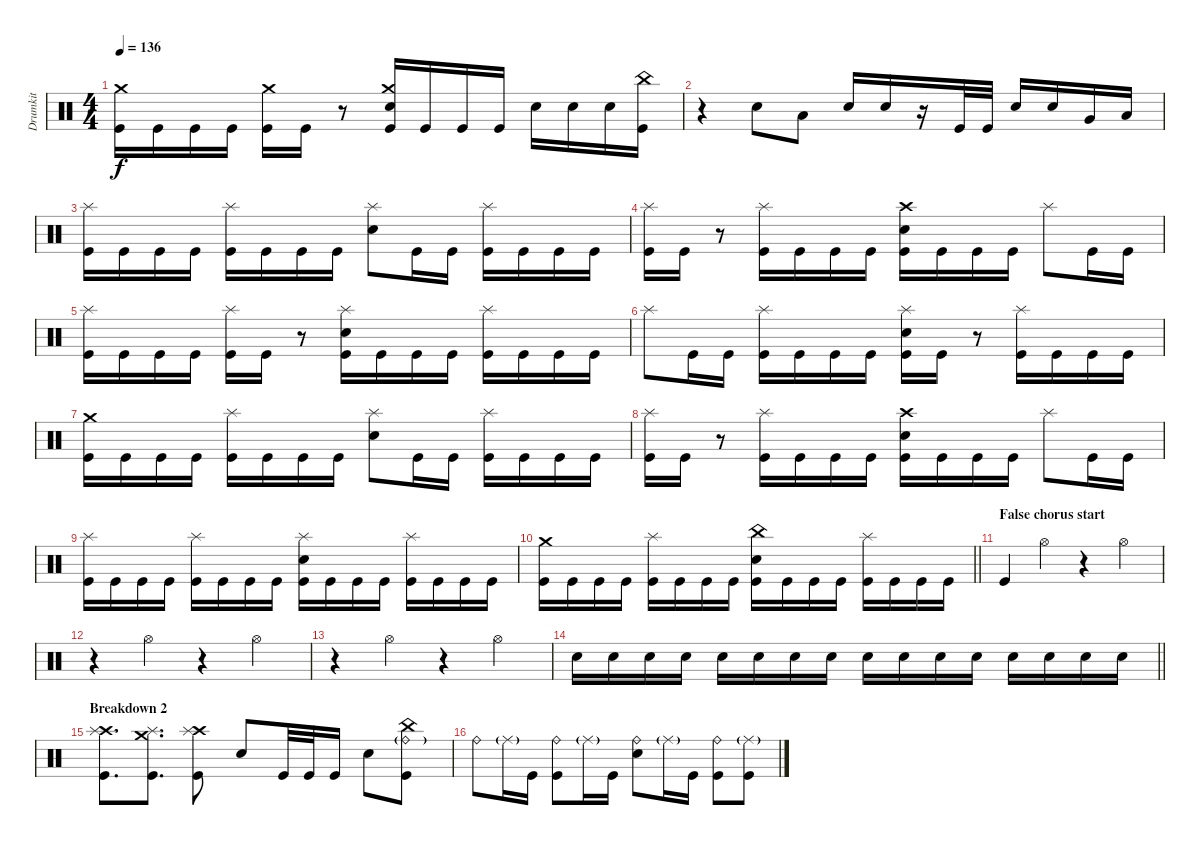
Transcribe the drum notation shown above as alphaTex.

\track ("Drumkit" "Drumkit") {instrument percussion}
\staff {score}
\articulation defaults
\ts (4 4)
\tempo 136
\clef neutral
\ks c
("Kick (hit)" "Crash medium (hit)").16{dy f} "Kick (hit)".16 "Kick (hit)".16 "Kick (hit)".16 ("Kick (hit)" "Crash medium (hit)").16 "Kick (hit)".16 r.8 ("Kick (hit)" "Snare (hit) 2" "Crash medium (hit)").16 "Kick (hit)".16 "Kick (hit)".16 "Kick (hit)".16 "Snare (hit) 2".16 "Snare (hit) 2".16 "Snare (hit) 2".16 ("Kick (hit)" "China (hit)").16 |
r.4 "Snare (hit) 2".8 "Low Tom (hit)".8 "Snare (hit) 2".16 "Snare (hit) 2".16 r.16 "Kick (hit)".32 "Kick (hit)".32 "Snare (hit) 2".16 "Snare (hit) 2".16 "Very Low Tom (hit)".16 "Low Floor Tom (hit)".16 |
("Kick (hit)" "Splash (hit)").16 "Kick (hit)".16 "Kick (hit)".16 "Kick (hit)".16 ("Kick (hit)" "Splash (hit)").16 "Kick (hit)".16 "Kick (hit)".16 "Kick (hit)".16 ("Snare (hit) 2" "Splash (hit)").8 "Kick (hit)".16 "Kick (hit)".16 ("Kick (hit)" "Splash (hit)").16 "Kick (hit)".16 "Kick (hit)".16 "Kick (hit)".16 |
("Splash (hit)" "Kick (hit)").16 "Kick (hit)".16 r.8 ("Splash (hit)" "Kick (hit)").16 "Kick (hit)".16 "Kick (hit)".16 "Kick (hit)".16 ("Kick (hit)" "Snare (hit) 2" "Crash high (hit)").16 "Kick (hit)".16 "Kick (hit)".16 "Kick (hit)".16 "Splash (hit)".8 "Kick (hit)".16 "Kick (hit)".16 |
("Kick (hit)" "Splash (hit)").16 "Kick (hit)".16 "Kick (hit)".16 "Kick (hit)".16 ("Kick (hit)" "Splash (hit)").16 "Kick (hit)".16 r.8 ("Kick (hit)" "Splash (hit)" "Snare (hit) 2").16 "Kick (hit)".16 "Kick (hit)".16 "Kick (hit)".16 ("Kick (hit)" "Splash (hit)").16 "Kick (hit)".16 "Kick (hit)".16 "Kick (hit)".16 |
"Splash (hit)".8 "Kick (hit)".16 "Kick (hit)".16 ("Kick (hit)" "Splash (hit)").16 "Kick (hit)".16 "Kick (hit)".16 "Kick (hit)".16 ("Kick (hit)" "Splash (hit)" "Snare (hit) 2").16 "Kick (hit)".16 r.8 ("Kick (hit)" "Splash (hit)").16 "Kick (hit)".16 "Kick (hit)".16 "Kick (hit)".16 |
("Kick (hit)" "Crash medium (hit)").16 "Kick (hit)".16 "Kick (hit)".16 "Kick (hit)".16 ("Kick (hit)" "Splash (hit)").16 "Kick (hit)".16 "Kick (hit)".16 "Kick (hit)".16 ("Snare (hit) 2" "Splash (hit)").8 "Kick (hit)".16 "Kick (hit)".16 ("Kick (hit)" "Splash (hit)").16 "Kick (hit)".16 "Kick (hit)".16 "Kick (hit)".16 |
("Splash (hit)" "Kick (hit)").16 "Kick (hit)".16 r.8 ("Splash (hit)" "Kick (hit)").16 "Kick (hit)".16 "Kick (hit)".16 "Kick (hit)".16 ("Kick (hit)" "Snare (hit) 2" "Crash high (hit)").16 "Kick (hit)".16 "Kick (hit)".16 "Kick (hit)".16 "Splash (hit)".8 "Kick (hit)".16 "Kick (hit)".16 |
("Kick (hit)" "Splash (hit)").16 "Kick (hit)".16 "Kick (hit)".16 "Kick (hit)".16 ("Kick (hit)" "Splash (hit)").16 "Kick (hit)".16 "Kick (hit)".16 "Kick (hit)".16 ("Kick (hit)" "Splash (hit)" "Snare (hit) 2").16 "Kick (hit)".16 "Kick (hit)".16 "Kick (hit)".16 ("Kick (hit)" "Splash (hit)").16 "Kick (hit)".16 "Kick (hit)".16 "Kick (hit)".16 |
\barLineRight lightlight
("Kick (hit)" "Crash medium (hit)").16 "Kick (hit)".16 "Kick (hit)".16 "Kick (hit)".16 ("Kick (hit)" "Splash (hit)").16 "Kick (hit)".16 "Kick (hit)".16 "Kick (hit)".16 ("Kick (hit)" "Snare (hit) 2" "China (hit)").16 "Kick (hit)".16 "Kick (hit)".16 "Kick (hit)".16 ("Kick (hit)" "Splash (hit)").16 "Kick (hit)".16 "Kick (hit)".16 "Kick (hit)".16 |
\section ("" "False chorus start")
"Kick (hit)".4 "Hi-Hat (open)".4 r.4 "Hi-Hat (open)".4 |
r.4 "Hi-Hat (open)".4 r.4 "Hi-Hat (open)".4 |
r.4 "Hi-Hat (open)".4 r.4 "Hi-Hat (open)".4 |
\barLineRight lightlight "Snare (hit) 2".16{volume 2} "Snare (hit) 2".16{volume 14} "Snare (hit) 2".16 "Snare (hit) 2".16 "Snare (hit) 2".16 "Snare (hit) 2".16 "Snare (hit) 2".16 "Snare (hit) 2".16 "Snare (hit) 2".16 "Snare (hit) 2".16 "Snare (hit) 2".16 "Snare (hit) 2".16 "Snare (hit) 2".16 "Snare (hit) 2".16 "Snare (hit) 2".16 "Snare (hit) 2".16
|
\section ("" "Breakdown 2")
("Crash high (hit)" "Kick (hit)" "Splash (hit)").8{d} ("Kick (hit)" "Crash medium (hit)" "Splash (hit)").8{d} ("Crash high (hit)" "Kick (hit)" "Splash (hit)").8 "Snare (hit) 2".8 "Kick (hit)".32 "Kick (hit)".32 "Kick (hit)".16 "Snare (hit) 2".8 ("Ride (bell)"{g} "Kick (hit)" "China (hit)").8 |
"Ride (bell)".8 "Ride (middle)"{g}.16 "Kick (hit)".16 ("Ride (bell)" "Kick (hit)").8 "Ride (middle)"{g}.16 "Kick (hit)".16 ("Ride (bell)" "Snare (hit) 2").8 "Ride (middle)"{g}.16 "Kick (hit)".16 ("Ride (bell)" "Kick (hit)").8 ("Kick (hit)" "Ride (middle)"{g}).8
